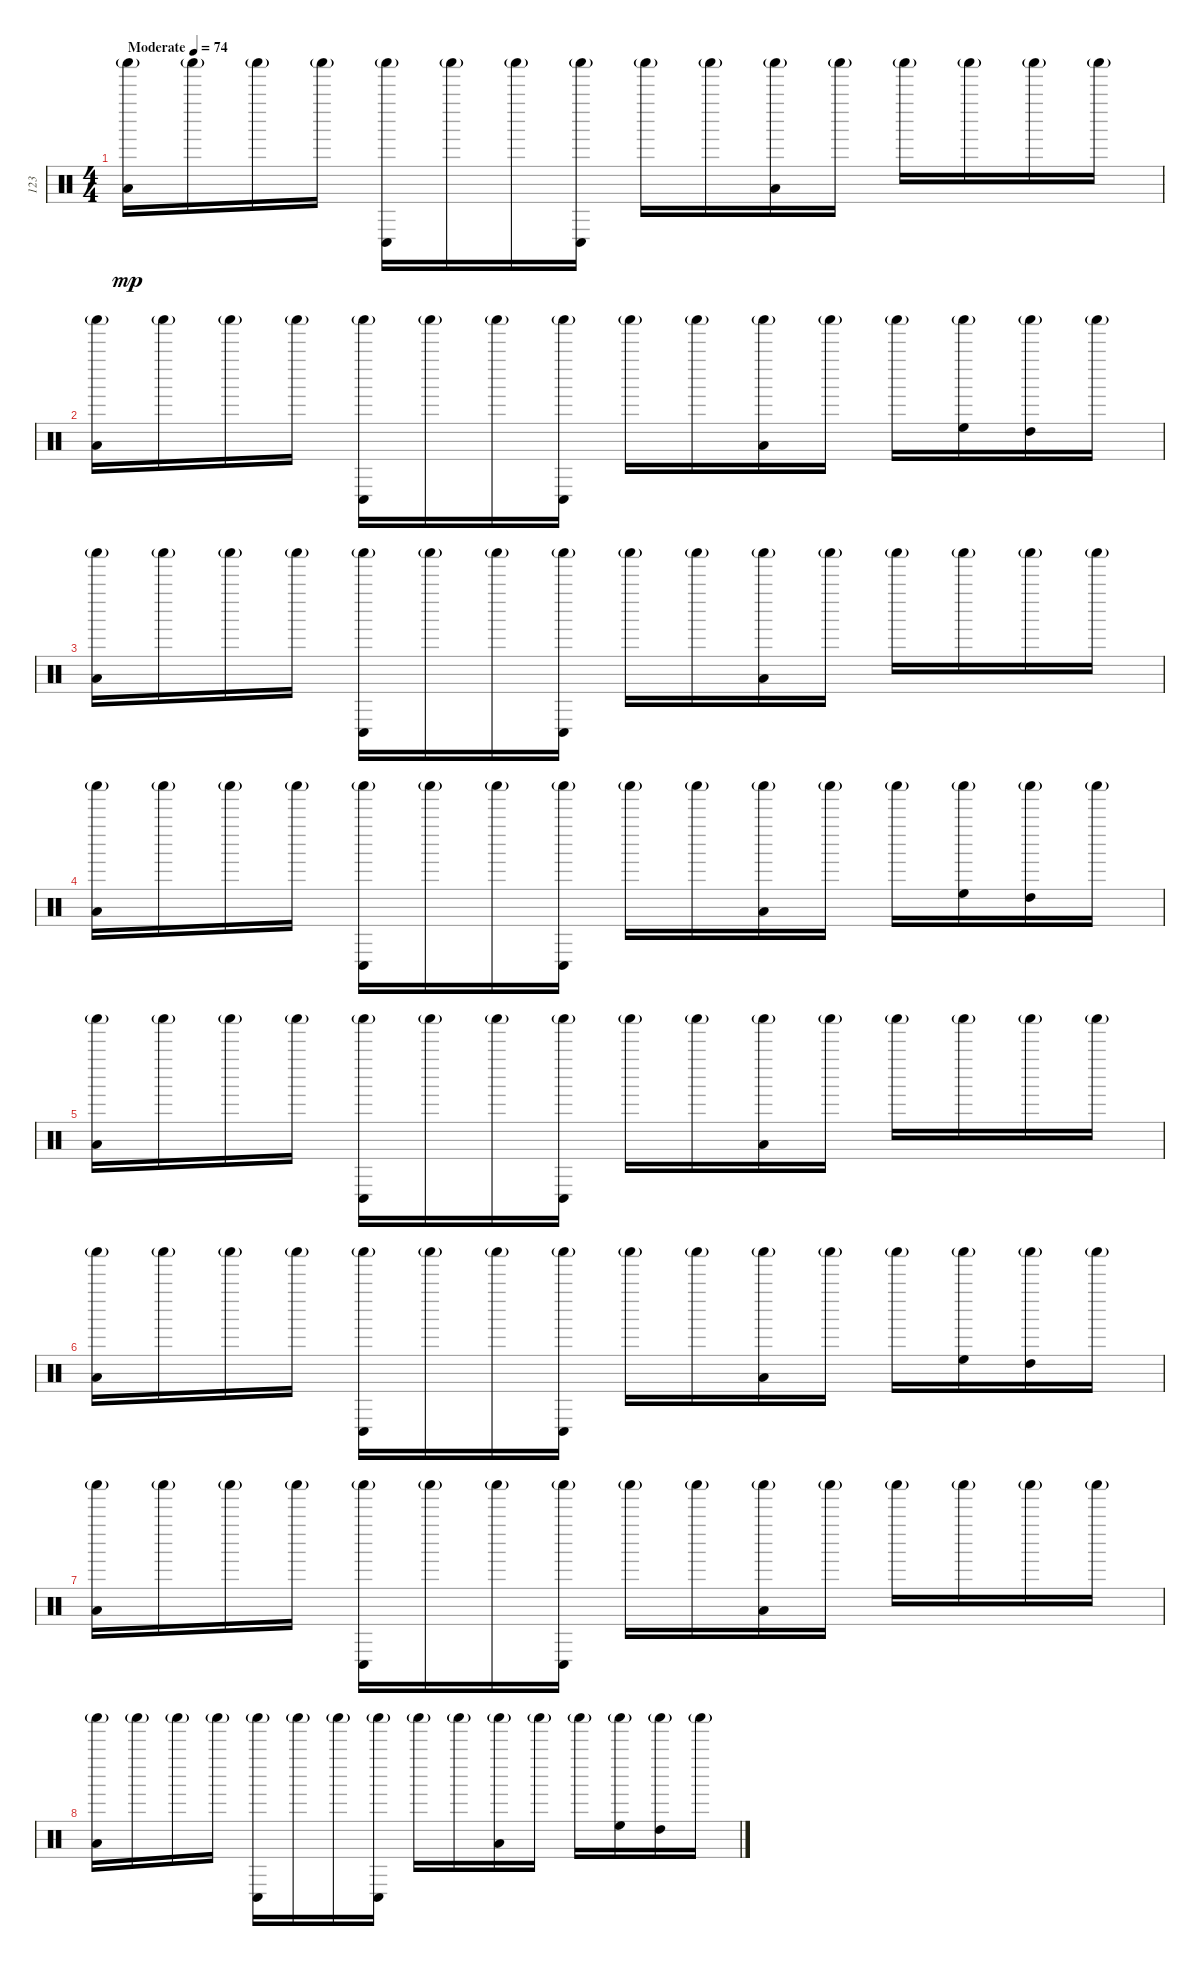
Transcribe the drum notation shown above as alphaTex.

\track ("123" "123") {instrument percussion}
\staff {score}
\articulation defaults
\ts (4 4)
\tempo (74 "Moderate")
\clef neutral
\ks c
("Shaker (hit)"{g} "Low Floor Tom (hit)").16{dy mp} "Shaker (hit)"{g}.16 "Shaker (hit)"{g}.16 "Shaker (hit)"{g}.16 ("Shaker (hit)"{g} "Conga low (hit)").16 "Shaker (hit)"{g}.16 "Shaker (hit)"{g}.16 ("Shaker (hit)"{g} "Conga low (hit)").16 "Shaker (hit)"{g}.16 "Shaker (hit)"{g}.16 ("Shaker (hit)"{g} "Low Floor Tom (hit)").16 "Shaker (hit)"{g}.16 "Shaker (hit)"{g}.16 "Shaker (hit)"{g}.16 "Shaker (hit)"{g}.16 "Shaker (hit)"{g}.16 |
("Shaker (hit)"{g} "Low Floor Tom (hit)").16 "Shaker (hit)"{g}.16 "Shaker (hit)"{g}.16 "Shaker (hit)"{g}.16 ("Shaker (hit)"{g} "Conga low (hit)").16 "Shaker (hit)"{g}.16 "Shaker (hit)"{g}.16 ("Shaker (hit)"{g} "Conga low (hit)").16 "Shaker (hit)"{g}.16 "Shaker (hit)"{g}.16 ("Shaker (hit)"{g} "Low Floor Tom (hit)").16 "Shaker (hit)"{g}.16 "Shaker (hit)"{g}.16 ("Shaker (hit)"{g} "High Floor Tom (hit)").16 ("Shaker (hit)"{g} "High Tom (hit)").16 "Shaker (hit)"{g}.16 |
("Shaker (hit)"{g} "Low Floor Tom (hit)").16 "Shaker (hit)"{g}.16 "Shaker (hit)"{g}.16 "Shaker (hit)"{g}.16 ("Shaker (hit)"{g} "Conga low (hit)").16 "Shaker (hit)"{g}.16 "Shaker (hit)"{g}.16 ("Shaker (hit)"{g} "Conga low (hit)").16 "Shaker (hit)"{g}.16 "Shaker (hit)"{g}.16 ("Shaker (hit)"{g} "Low Floor Tom (hit)").16 "Shaker (hit)"{g}.16 "Shaker (hit)"{g}.16 "Shaker (hit)"{g}.16 "Shaker (hit)"{g}.16 "Shaker (hit)"{g}.16 |
("Shaker (hit)"{g} "Low Floor Tom (hit)").16 "Shaker (hit)"{g}.16 "Shaker (hit)"{g}.16 "Shaker (hit)"{g}.16 ("Shaker (hit)"{g} "Conga low (hit)").16 "Shaker (hit)"{g}.16 "Shaker (hit)"{g}.16 ("Shaker (hit)"{g} "Conga low (hit)").16 "Shaker (hit)"{g}.16 "Shaker (hit)"{g}.16 ("Shaker (hit)"{g} "Low Floor Tom (hit)").16 "Shaker (hit)"{g}.16 "Shaker (hit)"{g}.16 ("Shaker (hit)"{g} "High Floor Tom (hit)").16 ("Shaker (hit)"{g} "High Tom (hit)").16 "Shaker (hit)"{g}.16 |
("Shaker (hit)"{g} "Low Floor Tom (hit)").16 "Shaker (hit)"{g}.16 "Shaker (hit)"{g}.16 "Shaker (hit)"{g}.16 ("Shaker (hit)"{g} "Conga low (hit)").16 "Shaker (hit)"{g}.16 "Shaker (hit)"{g}.16 ("Shaker (hit)"{g} "Conga low (hit)").16 "Shaker (hit)"{g}.16 "Shaker (hit)"{g}.16 ("Shaker (hit)"{g} "Low Floor Tom (hit)").16 "Shaker (hit)"{g}.16 "Shaker (hit)"{g}.16 "Shaker (hit)"{g}.16 "Shaker (hit)"{g}.16 "Shaker (hit)"{g}.16 |
("Shaker (hit)"{g} "Low Floor Tom (hit)").16 "Shaker (hit)"{g}.16 "Shaker (hit)"{g}.16 "Shaker (hit)"{g}.16 ("Shaker (hit)"{g} "Conga low (hit)").16 "Shaker (hit)"{g}.16 "Shaker (hit)"{g}.16 ("Shaker (hit)"{g} "Conga low (hit)").16 "Shaker (hit)"{g}.16 "Shaker (hit)"{g}.16 ("Shaker (hit)"{g} "Low Floor Tom (hit)").16 "Shaker (hit)"{g}.16 "Shaker (hit)"{g}.16 ("Shaker (hit)"{g} "High Floor Tom (hit)").16 ("Shaker (hit)"{g} "High Tom (hit)").16 "Shaker (hit)"{g}.16 |
("Shaker (hit)"{g} "Low Floor Tom (hit)").16 "Shaker (hit)"{g}.16 "Shaker (hit)"{g}.16 "Shaker (hit)"{g}.16 ("Shaker (hit)"{g} "Conga low (hit)").16 "Shaker (hit)"{g}.16 "Shaker (hit)"{g}.16 ("Shaker (hit)"{g} "Conga low (hit)").16 "Shaker (hit)"{g}.16 "Shaker (hit)"{g}.16 ("Shaker (hit)"{g} "Low Floor Tom (hit)").16 "Shaker (hit)"{g}.16 "Shaker (hit)"{g}.16 "Shaker (hit)"{g}.16 "Shaker (hit)"{g}.16 "Shaker (hit)"{g}.16 |
("Shaker (hit)"{g} "Low Floor Tom (hit)").16 "Shaker (hit)"{g}.16 "Shaker (hit)"{g}.16 "Shaker (hit)"{g}.16 ("Shaker (hit)"{g} "Conga low (hit)").16 "Shaker (hit)"{g}.16 "Shaker (hit)"{g}.16 ("Shaker (hit)"{g} "Conga low (hit)").16 "Shaker (hit)"{g}.16 "Shaker (hit)"{g}.16 ("Shaker (hit)"{g} "Low Floor Tom (hit)").16 "Shaker (hit)"{g}.16 "Shaker (hit)"{g}.16 ("Shaker (hit)"{g} "High Floor Tom (hit)").16 ("Shaker (hit)"{g} "High Tom (hit)").16 "Shaker (hit)"{g}.16
